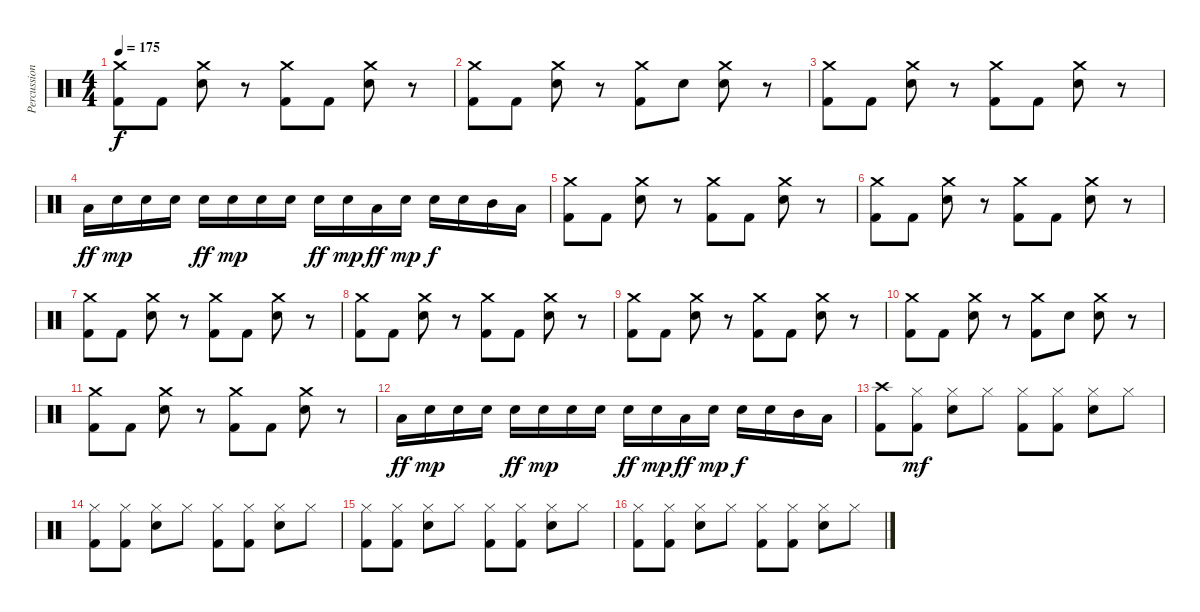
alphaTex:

\track ("Percussions" "Percussion") {instrument percussion}
\staff {score}
\articulation defaults
\ts (4 4)
\tempo 175
\clef neutral
\ks c
("Crash medium (hit)" "Kick (hit) 2").8{dy f} "Kick (hit) 2".8 ("Crash medium (hit)" "Snare (hit) 2").8 r.8 ("Crash medium (hit)" "Kick (hit) 2").8 "Kick (hit) 2".8 ("Crash medium (hit)" "Snare (hit) 2").8 r.8 |
("Crash medium (hit)" "Kick (hit) 2").8 "Kick (hit) 2".8 ("Crash medium (hit)" "Snare (hit) 2").8 r.8 ("Crash medium (hit)" "Kick (hit) 2").8 "Snare (hit) 2".8 ("Crash medium (hit)" "Snare (hit) 2").8 r.8 |
("Crash medium (hit)" "Kick (hit) 2").8 "Kick (hit) 2".8 ("Crash medium (hit)" "Snare (hit) 2").8 r.8 ("Crash medium (hit)" "Kick (hit) 2").8 "Kick (hit) 2".8 ("Crash medium (hit)" "Snare (hit) 2").8 r.8 |
"Low Tom (hit)".16{dy ff} "Snare (hit) 2".16{dy mp} "Snare (hit) 2".16 "Snare (hit) 2".16 "Snare (hit) 2".16{dy ff} "Snare (hit) 2".16{dy mp} "Snare (hit) 2".16 "Snare (hit) 2".16 "Snare (hit) 2".16{dy ff} "Snare (hit) 2".16{dy mp} "Low Tom (hit)".16{dy ff} "Snare (hit) 2".16{dy mp} "Snare (hit) 2".16{dy f} "Snare (hit) 2".16 "Mid Tom (hit)".16 "Low Tom (hit)".16 |
("Crash medium (hit)" "Kick (hit) 2").8 "Kick (hit) 2".8 ("Crash medium (hit)" "Snare (hit) 2").8 r.8 ("Crash medium (hit)" "Kick (hit) 2").8 "Kick (hit) 2".8 ("Crash medium (hit)" "Snare (hit) 2").8 r.8 |
("Crash medium (hit)" "Kick (hit) 2").8 "Kick (hit) 2".8 ("Crash medium (hit)" "Snare (hit) 2").8 r.8 ("Crash medium (hit)" "Kick (hit) 2").8 "Kick (hit) 2".8 ("Crash medium (hit)" "Snare (hit) 2").8 r.8 |
("Crash medium (hit)" "Kick (hit) 2").8 "Kick (hit) 2".8 ("Crash medium (hit)" "Snare (hit) 2").8 r.8 ("Crash medium (hit)" "Kick (hit) 2").8 "Kick (hit) 2".8 ("Crash medium (hit)" "Snare (hit) 2").8 r.8 |
("Crash medium (hit)" "Kick (hit) 2").8 "Kick (hit) 2".8 ("Crash medium (hit)" "Snare (hit) 2").8 r.8 ("Crash medium (hit)" "Kick (hit) 2").8 "Kick (hit) 2".8 ("Crash medium (hit)" "Snare (hit) 2").8 r.8 |
("Crash medium (hit)" "Kick (hit) 2").8 "Kick (hit) 2".8 ("Crash medium (hit)" "Snare (hit) 2").8 r.8 ("Crash medium (hit)" "Kick (hit) 2").8 "Kick (hit) 2".8 ("Crash medium (hit)" "Snare (hit) 2").8 r.8 |
("Crash medium (hit)" "Kick (hit) 2").8 "Kick (hit) 2".8 ("Crash medium (hit)" "Snare (hit) 2").8 r.8 ("Crash medium (hit)" "Kick (hit) 2").8 "Snare (hit) 2".8 ("Crash medium (hit)" "Snare (hit) 2").8 r.8 |
("Crash medium (hit)" "Kick (hit) 2").8 "Kick (hit) 2".8 ("Crash medium (hit)" "Snare (hit) 2").8 r.8 ("Crash medium (hit)" "Kick (hit) 2").8 "Kick (hit) 2".8 ("Crash medium (hit)" "Snare (hit) 2").8 r.8 |
"Low Tom (hit)".16{dy ff} "Snare (hit) 2".16{dy mp} "Snare (hit) 2".16 "Snare (hit) 2".16 "Snare (hit) 2".16{dy ff} "Snare (hit) 2".16{dy mp} "Snare (hit) 2".16 "Snare (hit) 2".16 "Snare (hit) 2".16{dy ff} "Snare (hit) 2".16{dy mp} "Low Tom (hit)".16{dy ff} "Snare (hit) 2".16{dy mp} "Snare (hit) 2".16{dy f} "Snare (hit) 2".16 "Mid Tom (hit)".16 "Low Tom (hit)".16 |
("Crash high (hit)" "Kick (hit) 2").8 ("Hi-Hat (closed)" "Kick (hit) 2").8{dy mf} ("Hi-Hat (closed)" "Snare (hit) 2").8 "Hi-Hat (closed)".8 ("Hi-Hat (closed)" "Kick (hit) 2").8 ("Hi-Hat (closed)" "Kick (hit) 2").8 ("Hi-Hat (closed)" "Snare (hit) 2").8 "Hi-Hat (closed)".8 |
("Hi-Hat (closed)" "Kick (hit) 2").8 ("Hi-Hat (closed)" "Kick (hit) 2").8 ("Hi-Hat (closed)" "Snare (hit) 2").8 "Hi-Hat (closed)".8 ("Hi-Hat (closed)" "Kick (hit) 2").8 ("Hi-Hat (closed)" "Kick (hit) 2").8 ("Hi-Hat (closed)" "Snare (hit) 2").8 "Hi-Hat (closed)".8 |
("Hi-Hat (closed)" "Kick (hit) 2").8 ("Hi-Hat (closed)" "Kick (hit) 2").8 ("Hi-Hat (closed)" "Snare (hit) 2").8 "Hi-Hat (closed)".8 ("Hi-Hat (closed)" "Kick (hit) 2").8 ("Hi-Hat (closed)" "Kick (hit) 2").8 ("Hi-Hat (closed)" "Snare (hit) 2").8 "Hi-Hat (closed)".8 |
("Hi-Hat (closed)" "Kick (hit) 2").8 ("Hi-Hat (closed)" "Kick (hit) 2").8 ("Hi-Hat (closed)" "Snare (hit) 2").8 "Hi-Hat (closed)".8 ("Hi-Hat (closed)" "Kick (hit) 2").8 ("Hi-Hat (closed)" "Kick (hit) 2").8 ("Hi-Hat (closed)" "Snare (hit) 2").8 "Hi-Hat (closed)".8
